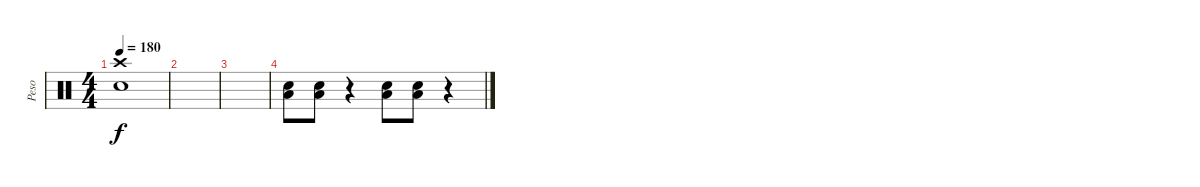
\track ("Peso" "Peso") {instrument percussion}
\staff {score}
\articulation defaults
\ts (4 4)
\tempo 180
\clef neutral
\ks c
("Crash high (hit)" "Snare (hit) 2").1{dy f} |
|
|
("Low Floor Tom (hit)" "Snare (hit) 2").8 ("Low Floor Tom (hit)" "Snare (hit) 2").8 r.4 ("Low Floor Tom (hit)" "Snare (hit) 2").8 ("Low Floor Tom (hit)" "Snare (hit) 2").8 r.4
